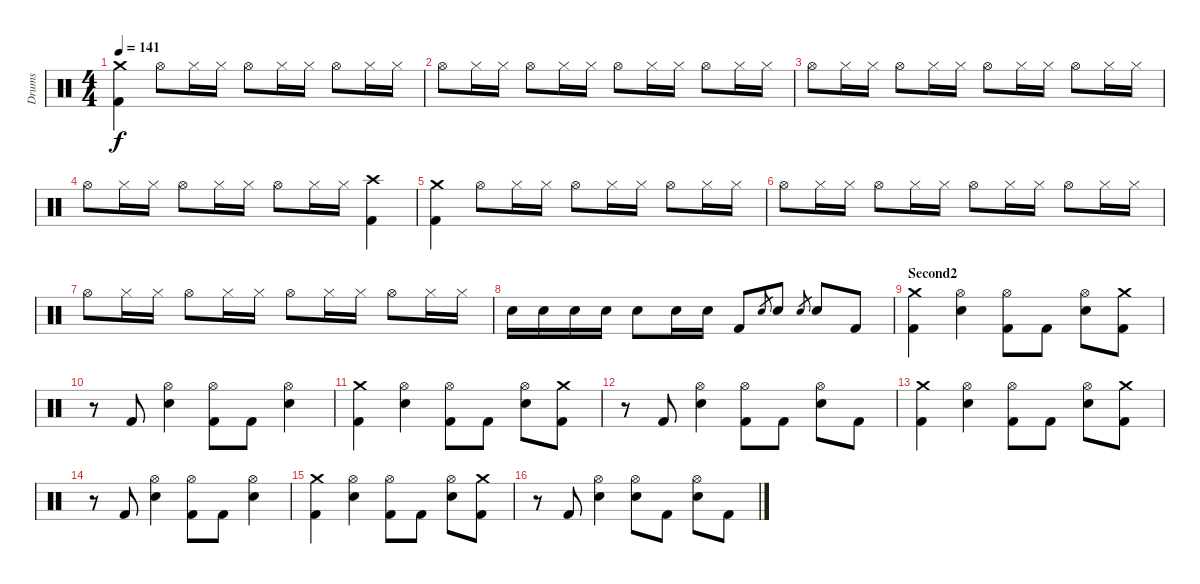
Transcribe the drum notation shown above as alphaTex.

\track ("Drums" "Drums") {instrument percussion}
\staff {score}
\articulation defaults
\ts (4 4)
\tempo 141
\clef neutral
\ks c
("Crash medium (hit)" "Kick (hit) 2").4{dy f} "Hi-Hat (open)".8 "Hi-Hat (closed)".16 "Hi-Hat (closed)".16 "Hi-Hat (open)".8 "Hi-Hat (closed)".16 "Hi-Hat (closed)".16 "Hi-Hat (open)".8 "Hi-Hat (closed)".16 "Hi-Hat (closed)".16 |
"Hi-Hat (open)".8 "Hi-Hat (closed)".16 "Hi-Hat (closed)".16 "Hi-Hat (open)".8 "Hi-Hat (closed)".16 "Hi-Hat (closed)".16 "Hi-Hat (open)".8 "Hi-Hat (closed)".16 "Hi-Hat (closed)".16 "Hi-Hat (open)".8 "Hi-Hat (closed)".16 "Hi-Hat (closed)".16 |
"Hi-Hat (open)".8 "Hi-Hat (closed)".16 "Hi-Hat (closed)".16 "Hi-Hat (open)".8 "Hi-Hat (closed)".16 "Hi-Hat (closed)".16 "Hi-Hat (open)".8 "Hi-Hat (closed)".16 "Hi-Hat (closed)".16 "Hi-Hat (open)".8 "Hi-Hat (closed)".16 "Hi-Hat (closed)".16 |
"Hi-Hat (open)".8 "Hi-Hat (closed)".16 "Hi-Hat (closed)".16 "Hi-Hat (open)".8 "Hi-Hat (closed)".16 "Hi-Hat (closed)".16 "Hi-Hat (open)".8 "Hi-Hat (closed)".16 "Hi-Hat (closed)".16 ("Crash high (hit)" "Kick (hit) 2").4 |
("Crash medium (hit)" "Kick (hit) 2").4 "Hi-Hat (open)".8 "Hi-Hat (closed)".16 "Hi-Hat (closed)".16 "Hi-Hat (open)".8 "Hi-Hat (closed)".16 "Hi-Hat (closed)".16 "Hi-Hat (open)".8 "Hi-Hat (closed)".16 "Hi-Hat (closed)".16 |
"Hi-Hat (open)".8 "Hi-Hat (closed)".16 "Hi-Hat (closed)".16 "Hi-Hat (open)".8 "Hi-Hat (closed)".16 "Hi-Hat (closed)".16 "Hi-Hat (open)".8 "Hi-Hat (closed)".16 "Hi-Hat (closed)".16 "Hi-Hat (open)".8 "Hi-Hat (closed)".16 "Hi-Hat (closed)".16 |
"Hi-Hat (open)".8 "Hi-Hat (closed)".16 "Hi-Hat (closed)".16 "Hi-Hat (open)".8 "Hi-Hat (closed)".16 "Hi-Hat (closed)".16 "Hi-Hat (open)".8 "Hi-Hat (closed)".16 "Hi-Hat (closed)".16 "Hi-Hat (open)".8 "Hi-Hat (closed)".16 "Hi-Hat (closed)".16 |
"Electric Snare (hit)".16 "Electric Snare (hit)".16 "Electric Snare (hit)".16 "Electric Snare (hit)".16 "Electric Snare (hit)".8 "Electric Snare (hit)".16 "Electric Snare (hit)".16 "Kick (hit) 2".8 "Electric Snare (hit)".8{gr} "Electric Snare (hit)".8 "Electric Snare (hit)".8{gr} "Electric Snare (hit)".8 "Kick (hit) 2".8 |
\section ("" "Second2")
("Crash medium (hit)" "Kick (hit) 2").4 ("Hi-Hat (open)" "Electric Snare (hit)").4 ("Hi-Hat (open)" "Kick (hit) 2").8 "Kick (hit) 2".8 ("Hi-Hat (open)" "Electric Snare (hit)").8 ("Crash medium (hit)" "Kick (hit) 2").8 |
r.8 "Kick (hit) 2".8 ("Hi-Hat (open)" "Electric Snare (hit)").4 ("Hi-Hat (open)" "Kick (hit) 2").8 "Kick (hit) 2".8 ("Hi-Hat (open)" "Electric Snare (hit)").4 |
("Crash medium (hit)" "Kick (hit) 2").4 ("Hi-Hat (open)" "Electric Snare (hit)").4 ("Hi-Hat (open)" "Kick (hit) 2").8 "Kick (hit) 2".8 ("Hi-Hat (open)" "Electric Snare (hit)").8 ("Crash medium (hit)" "Kick (hit) 2").8 |
r.8 "Kick (hit) 2".8 ("Hi-Hat (open)" "Electric Snare (hit)").4 ("Hi-Hat (open)" "Kick (hit) 2").8 "Kick (hit) 2".8 ("Hi-Hat (open)" "Electric Snare (hit)").8 "Kick (hit) 2".8 |
("Crash medium (hit)" "Kick (hit) 2").4 ("Hi-Hat (open)" "Electric Snare (hit)").4 ("Hi-Hat (open)" "Kick (hit) 2").8 "Kick (hit) 2".8 ("Hi-Hat (open)" "Electric Snare (hit)").8 ("Crash medium (hit)" "Kick (hit) 2").8 |
r.8 "Kick (hit) 2".8 ("Hi-Hat (open)" "Electric Snare (hit)").4 ("Hi-Hat (open)" "Kick (hit) 2").8 "Kick (hit) 2".8 ("Hi-Hat (open)" "Electric Snare (hit)").4 |
("Crash medium (hit)" "Kick (hit) 2").4 ("Hi-Hat (open)" "Electric Snare (hit)").4 ("Hi-Hat (open)" "Kick (hit) 2").8 "Kick (hit) 2".8 ("Hi-Hat (open)" "Electric Snare (hit)").8 ("Crash medium (hit)" "Kick (hit) 2").8 |
r.8 "Kick (hit) 2".8 ("Hi-Hat (open)" "Electric Snare (hit)").4 ("Hi-Hat (open)" "Electric Snare (hit)").8 "Kick (hit) 2".8 ("Hi-Hat (open)" "Electric Snare (hit)").8 "Kick (hit) 2".8
